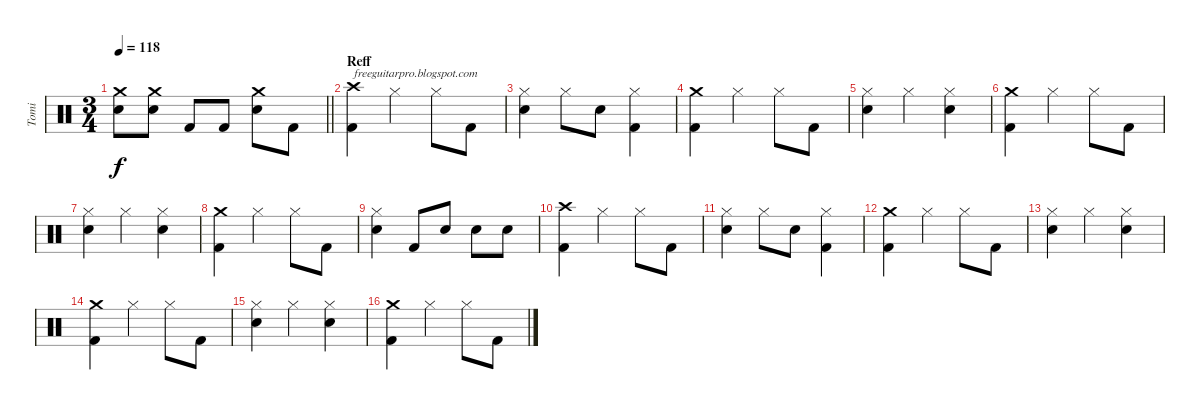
\track ("Tomi" "Tomi") {instrument percussion}
\staff {score}
\articulation defaults
\ts (3 4)
\tempo 118
\clef neutral
\barLineRight lightlight
\ks c
("Crash medium (hit)" "Electric Snare (hit)").8{dy f} ("Crash medium (hit)" "Electric Snare (hit)").8 "Kick (hit) 2".8 "Kick (hit) 2".8 ("Crash medium (hit)" "Electric Snare (hit)").8 "Kick (hit) 2".8 |
\section ("" "Reff")
("Crash high (hit)" "Kick (hit) 2").4{txt "freeguitarpro.blogspot.com"} "Hi-Hat (closed)".4 "Hi-Hat (closed)".8 "Kick (hit) 2".8 |
("Hi-Hat (closed)" "Electric Snare (hit)").4 "Hi-Hat (closed)".8 "Electric Snare (hit)".8 ("Hi-Hat (closed)" "Kick (hit) 2").4 |
("Crash medium (hit)" "Kick (hit) 2").4 "Hi-Hat (closed)".4 "Hi-Hat (closed)".8 "Kick (hit) 2".8 |
("Hi-Hat (closed)" "Electric Snare (hit)").4 "Hi-Hat (closed)".4 ("Hi-Hat (closed)" "Electric Snare (hit)").4 |
("Crash medium (hit)" "Kick (hit) 2").4 "Hi-Hat (closed)".4 "Hi-Hat (closed)".8 "Kick (hit) 2".8 |
("Hi-Hat (closed)" "Electric Snare (hit)").4 "Hi-Hat (closed)".4 ("Hi-Hat (closed)" "Electric Snare (hit)").4 |
("Crash medium (hit)" "Kick (hit) 2").4 "Hi-Hat (closed)".4 "Hi-Hat (closed)".8 "Kick (hit) 2".8 |
("Hi-Hat (closed)" "Electric Snare (hit)").4 "Kick (hit) 2".8 "Electric Snare (hit)".8 "Electric Snare (hit)".8 "Electric Snare (hit)".8 |
("Crash high (hit)" "Kick (hit) 2").4 "Hi-Hat (closed)".4 "Hi-Hat (closed)".8 "Kick (hit) 2".8 |
("Hi-Hat (closed)" "Electric Snare (hit)").4 "Hi-Hat (closed)".8 "Electric Snare (hit)".8 ("Hi-Hat (closed)" "Kick (hit) 2").4 |
("Crash medium (hit)" "Kick (hit) 2").4 "Hi-Hat (closed)".4 "Hi-Hat (closed)".8 "Kick (hit) 2".8 |
("Hi-Hat (closed)" "Electric Snare (hit)").4 "Hi-Hat (closed)".4 ("Hi-Hat (closed)" "Electric Snare (hit)").4 |
("Crash medium (hit)" "Kick (hit) 2").4 "Hi-Hat (closed)".4 "Hi-Hat (closed)".8 "Kick (hit) 2".8 |
("Hi-Hat (closed)" "Electric Snare (hit)").4 "Hi-Hat (closed)".4 ("Hi-Hat (closed)" "Electric Snare (hit)").4 |
("Crash medium (hit)" "Kick (hit) 2").4 "Hi-Hat (closed)".4 "Hi-Hat (closed)".8 "Kick (hit) 2".8
